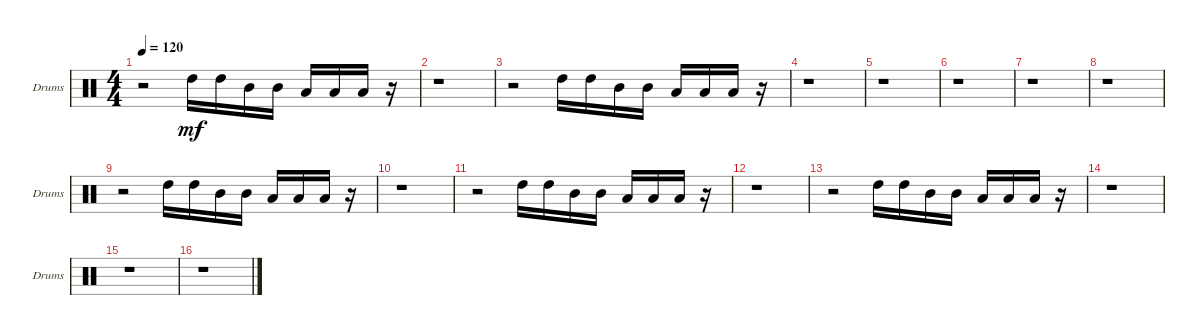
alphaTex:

\bracketExtendMode groupsimilarinstruments
\singleTrackTrackNamePolicy allsystems
\multiTrackTrackNamePolicy allsystems
\firstSystemTrackNameOrientation horizontal
\otherSystemsTrackNameOrientation horizontal
\track ("Toms" "Drums") {instrument percussion}
\staff {score}
\articulation defaults
\ts (4 4)
\tempo 120
\clef neutral
\scale
0.333333
\ks c
r.2{dy mf} "High Tom (hit)".16 "High Tom (hit)".16 "Mid Tom (hit)".16 "Mid Tom (hit)".16 "Low Tom (hit)".16 "Low Tom (hit)".16 "Low Tom (hit)".16 r.16 |
\scale
0.333333 r.1 |
\scale
0.333333 r.2 "High Tom (hit)".16 "High Tom (hit)".16 "Mid Tom (hit)".16 "Mid Tom (hit)".16 "Low Tom (hit)".16 "Low Tom (hit)".16 "Low Tom (hit)".16 r.16 |
\scale
0.333333 r.1 |
\scale
0.333333 r.1 |
\scale
0.333333 r.1 |
\scale
0.333333 r.1 |
\scale
0.333333 r.1 |
\scale
0.333333 r.2 "High Tom (hit)".16 "High Tom (hit)".16 "Mid Tom (hit)".16 "Mid Tom (hit)".16 "Low Tom (hit)".16 "Low Tom (hit)".16 "Low Tom (hit)".16 r.16 |
\scale
0.333333 r.1 |
\scale
0.333333 r.2 "High Tom (hit)".16 "High Tom (hit)".16 "Mid Tom (hit)".16 "Mid Tom (hit)".16 "Low Tom (hit)".16 "Low Tom (hit)".16 "Low Tom (hit)".16 r.16 |
\scale
0.333333 r.1 |
\scale
0.333333 r.2 "High Tom (hit)".16 "High Tom (hit)".16 "Mid Tom (hit)".16 "Mid Tom (hit)".16 "Low Tom (hit)".16 "Low Tom (hit)".16 "Low Tom (hit)".16 r.16 |
\scale
0.333333 r.1 |
\scale
0.333333 r.1 |
\scale
0.333333 r.1
